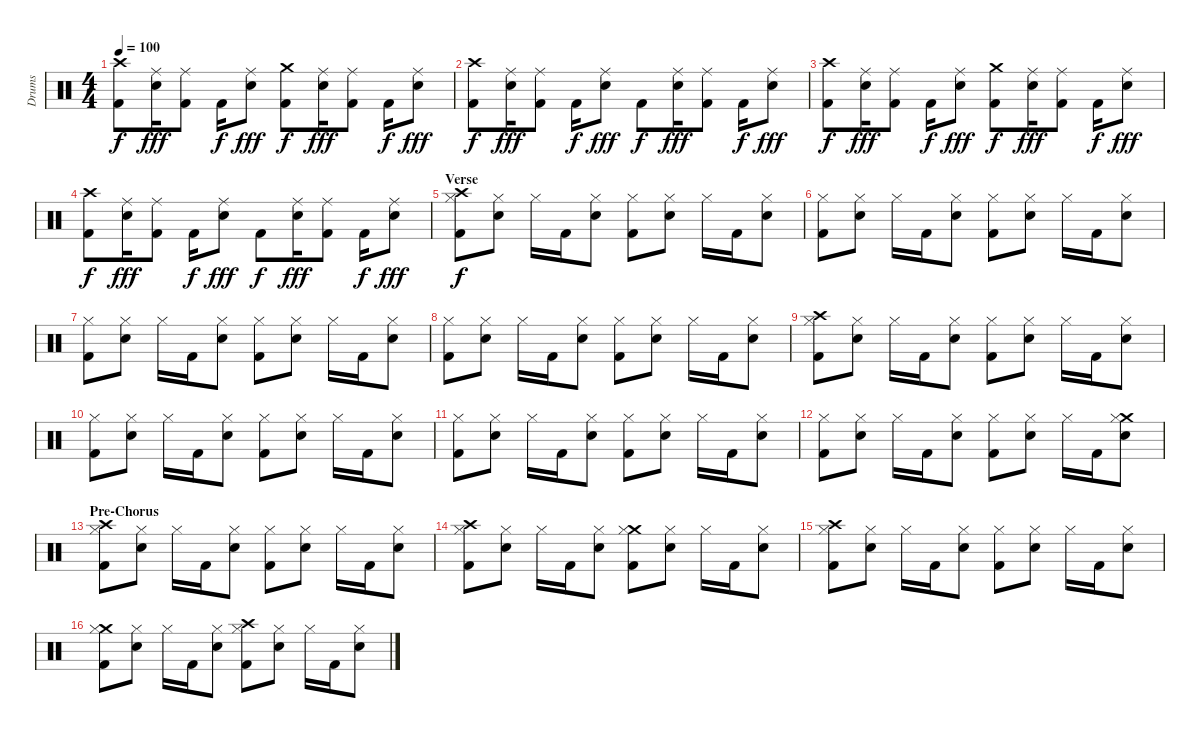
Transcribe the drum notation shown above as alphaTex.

\track ("Drums" "Drums") {instrument percussion}
\staff {score}
\articulation defaults
\ts (4 4)
\tempo 100
\clef neutral
\ks c
("Crash high (hit)" "Kick (hit) 2").8{dy f} ("Ride (middle)" "Snare (hit) 2").16{dy fff} ("Ride (middle)" "Kick (hit) 2").8 "Kick (hit) 2".16{dy f} ("Ride (middle)" "Snare (hit) 2").8{dy fff} ("Crash medium (hit)" "Kick (hit) 2").8{dy f} ("Ride (middle)" "Snare (hit) 2").16{dy fff} ("Ride (middle)" "Kick (hit) 2").8 "Kick (hit) 2".16{dy f} ("Ride (middle)" "Snare (hit) 2").8{dy fff} |
("Crash high (hit)" "Kick (hit) 2").8{dy f} ("Ride (middle)" "Snare (hit) 2").16{dy fff} ("Ride (middle)" "Kick (hit) 2").8 "Kick (hit) 2".16{dy f} ("Ride (middle)" "Snare (hit) 2").8{dy fff} "Kick (hit) 2".8{dy f} ("Ride (middle)" "Snare (hit) 2").16{dy fff} ("Ride (middle)" "Kick (hit) 2").8 "Kick (hit) 2".16{dy f} ("Ride (middle)" "Snare (hit) 2").8{dy fff} |
("Crash high (hit)" "Kick (hit) 2").8{dy f} ("Ride (middle)" "Snare (hit) 2").16{dy fff} ("Ride (middle)" "Kick (hit) 2").8 "Kick (hit) 2".16{dy f} ("Ride (middle)" "Snare (hit) 2").8{dy fff} ("Crash medium (hit)" "Kick (hit) 2").8{dy f} ("Ride (middle)" "Snare (hit) 2").16{dy fff} ("Ride (middle)" "Kick (hit) 2").8 "Kick (hit) 2".16{dy f} ("Ride (middle)" "Snare (hit) 2").8{dy fff} |
("Crash high (hit)" "Kick (hit) 2").8{dy f} ("Ride (middle)" "Snare (hit) 2").16{dy fff} ("Ride (middle)" "Kick (hit) 2").8 "Kick (hit) 2".16{dy f} ("Ride (middle)" "Snare (hit) 2").8{dy fff} "Kick (hit) 2".8{dy f} ("Ride (middle)" "Snare (hit) 2").16{dy fff} ("Ride (middle)" "Kick (hit) 2").8 "Kick (hit) 2".16{dy f} ("Ride (middle)" "Snare (hit) 2").8{dy fff} |
\section ("" "Verse")
("Crash high (hit)" "Hi-Hat (closed)" "Kick (hit) 2").8{dy f} ("Hi-Hat (closed)" "Snare (hit) 2").8 "Hi-Hat (closed)".16 "Kick (hit) 2".16 ("Hi-Hat (closed)" "Snare (hit) 2").8 ("Hi-Hat (closed)" "Kick (hit) 2").8 ("Hi-Hat (closed)" "Snare (hit) 2").8 "Hi-Hat (closed)".16 "Kick (hit) 2".16 ("Hi-Hat (closed)" "Snare (hit) 2").8 |
("Hi-Hat (closed)" "Kick (hit) 2").8 ("Hi-Hat (closed)" "Snare (hit) 2").8 "Hi-Hat (closed)".16 "Kick (hit) 2".16 ("Hi-Hat (closed)" "Snare (hit) 2").8 ("Hi-Hat (closed)" "Kick (hit) 2").8 ("Hi-Hat (closed)" "Snare (hit) 2").8 "Hi-Hat (closed)".16 "Kick (hit) 2".16 ("Hi-Hat (closed)" "Snare (hit) 2").8 |
("Hi-Hat (closed)" "Kick (hit) 2").8 ("Hi-Hat (closed)" "Snare (hit) 2").8 "Hi-Hat (closed)".16 "Kick (hit) 2".16 ("Hi-Hat (closed)" "Snare (hit) 2").8 ("Hi-Hat (closed)" "Kick (hit) 2").8 ("Hi-Hat (closed)" "Snare (hit) 2").8 "Hi-Hat (closed)".16 "Kick (hit) 2".16 ("Hi-Hat (closed)" "Snare (hit) 2").8 |
("Hi-Hat (closed)" "Kick (hit) 2").8 ("Hi-Hat (closed)" "Snare (hit) 2").8 "Hi-Hat (closed)".16 "Kick (hit) 2".16 ("Hi-Hat (closed)" "Snare (hit) 2").8 ("Hi-Hat (closed)" "Kick (hit) 2").8 ("Hi-Hat (closed)" "Snare (hit) 2").8 "Hi-Hat (closed)".16 "Kick (hit) 2".16 ("Hi-Hat (closed)" "Snare (hit) 2").8 |
("Crash high (hit)" "Hi-Hat (closed)" "Kick (hit) 2").8 ("Hi-Hat (closed)" "Snare (hit) 2").8 "Hi-Hat (closed)".16 "Kick (hit) 2".16 ("Hi-Hat (closed)" "Snare (hit) 2").8 ("Hi-Hat (closed)" "Kick (hit) 2").8 ("Hi-Hat (closed)" "Snare (hit) 2").8 "Hi-Hat (closed)".16 "Kick (hit) 2".16 ("Hi-Hat (closed)" "Snare (hit) 2").8 |
("Hi-Hat (closed)" "Kick (hit) 2").8 ("Hi-Hat (closed)" "Snare (hit) 2").8 "Hi-Hat (closed)".16 "Kick (hit) 2".16 ("Hi-Hat (closed)" "Snare (hit) 2").8 ("Hi-Hat (closed)" "Kick (hit) 2").8 ("Hi-Hat (closed)" "Snare (hit) 2").8 "Hi-Hat (closed)".16 "Kick (hit) 2".16 ("Hi-Hat (closed)" "Snare (hit) 2").8 |
("Hi-Hat (closed)" "Kick (hit) 2").8 ("Hi-Hat (closed)" "Snare (hit) 2").8 "Hi-Hat (closed)".16 "Kick (hit) 2".16 ("Hi-Hat (closed)" "Snare (hit) 2").8 ("Hi-Hat (closed)" "Kick (hit) 2").8 ("Hi-Hat (closed)" "Snare (hit) 2").8 "Hi-Hat (closed)".16 "Kick (hit) 2".16 ("Hi-Hat (closed)" "Snare (hit) 2").8 |
("Hi-Hat (closed)" "Kick (hit) 2").8 ("Hi-Hat (closed)" "Snare (hit) 2").8 "Hi-Hat (closed)".16 "Kick (hit) 2".16 ("Hi-Hat (closed)" "Snare (hit) 2").8 ("Hi-Hat (closed)" "Kick (hit) 2").8 ("Hi-Hat (closed)" "Snare (hit) 2").8 "Hi-Hat (closed)".16 "Kick (hit) 2".16 ("Crash medium (hit)" "Hi-Hat (closed)" "Snare (hit) 2").8 |
\section ("" "Pre-Chorus")
("Crash high (hit)" "Hi-Hat (closed)" "Kick (hit) 2").8 ("Hi-Hat (closed)" "Snare (hit) 2").8 "Hi-Hat (closed)".16 "Kick (hit) 2".16 ("Hi-Hat (closed)" "Snare (hit) 2").8 ("Hi-Hat (closed)" "Kick (hit) 2").8 ("Hi-Hat (closed)" "Snare (hit) 2").8 "Hi-Hat (closed)".16 "Kick (hit) 2".16 ("Hi-Hat (closed)" "Snare (hit) 2").8 |
("Crash high (hit)" "Hi-Hat (closed)" "Kick (hit) 2").8 ("Hi-Hat (closed)" "Snare (hit) 2").8 "Hi-Hat (closed)".16 "Kick (hit) 2".16 ("Hi-Hat (closed)" "Snare (hit) 2").8 ("Crash medium (hit)" "Hi-Hat (closed)" "Kick (hit) 2").8 ("Hi-Hat (closed)" "Snare (hit) 2").8 "Hi-Hat (closed)".16 "Kick (hit) 2".16 ("Hi-Hat (closed)" "Snare (hit) 2").8 |
("Crash high (hit)" "Hi-Hat (closed)" "Kick (hit) 2").8 ("Hi-Hat (closed)" "Snare (hit) 2").8 "Hi-Hat (closed)".16 "Kick (hit) 2".16 ("Hi-Hat (closed)" "Snare (hit) 2").8 ("Hi-Hat (closed)" "Kick (hit) 2").8 ("Hi-Hat (closed)" "Snare (hit) 2").8 "Hi-Hat (closed)".16 "Kick (hit) 2".16 ("Hi-Hat (closed)" "Snare (hit) 2").8 |
("Crash medium (hit)" "Hi-Hat (closed)" "Kick (hit) 2").8 ("Hi-Hat (closed)" "Snare (hit) 2").8 "Hi-Hat (closed)".16 "Kick (hit) 2".16 ("Hi-Hat (closed)" "Snare (hit) 2").8 ("Crash high (hit)" "Hi-Hat (closed)" "Kick (hit) 2").8 ("Hi-Hat (closed)" "Snare (hit) 2").8 "Hi-Hat (closed)".16 "Kick (hit) 2".16 ("Hi-Hat (closed)" "Snare (hit) 2").8
